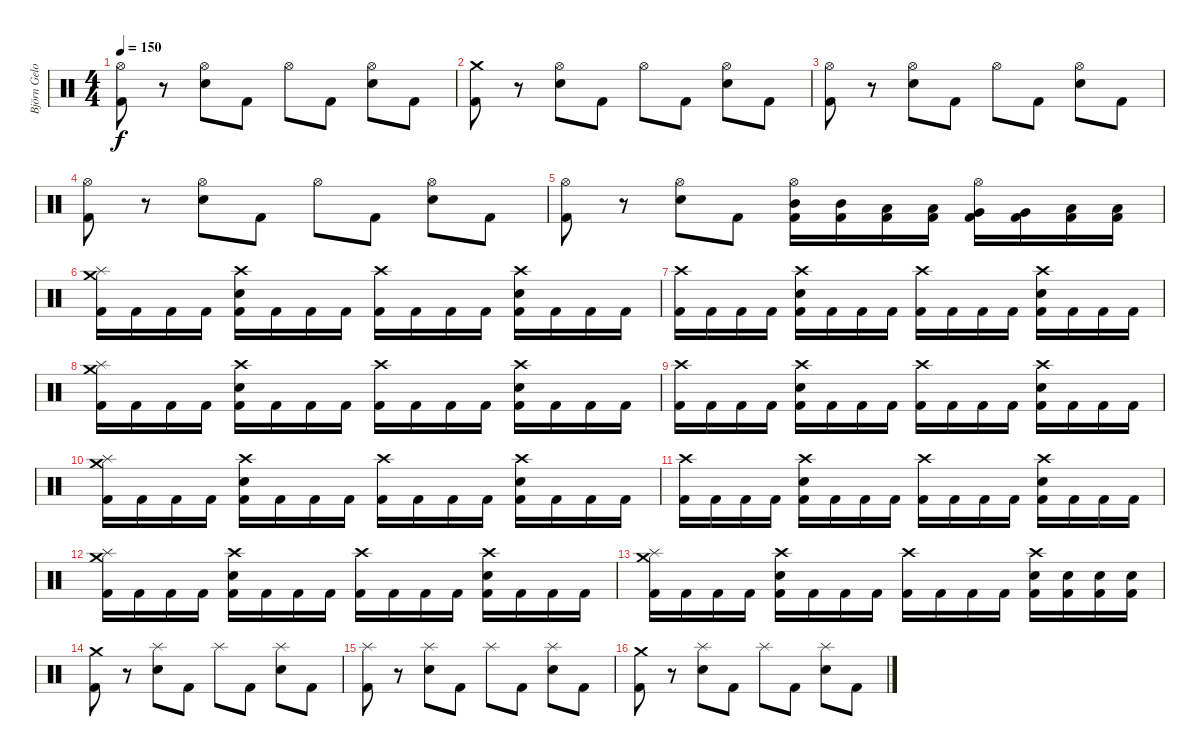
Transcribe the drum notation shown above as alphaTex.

\track ("Björn Gelotte" "Björn Gelo") {instrument percussion}
\staff {score}
\articulation defaults
\ts (4 4)
\tempo 150
\clef neutral
\ks c
("Hi-Hat (open)" "Kick (hit) 2").8{dy f} r.8 ("Hi-Hat (open)" "Electric Snare (hit)").8 "Kick (hit) 2".8 "Hi-Hat (open)".8 "Kick (hit) 2".8 ("Hi-Hat (open)" "Electric Snare (hit)").8 "Kick (hit) 2".8 |
("Crash medium (hit)" "Kick (hit) 2").8 r.8 ("Hi-Hat (open)" "Electric Snare (hit)").8 "Kick (hit) 2".8 "Hi-Hat (open)".8 "Kick (hit) 2".8 ("Hi-Hat (open)" "Electric Snare (hit)").8 "Kick (hit) 2".8 |
("Hi-Hat (open)" "Kick (hit) 2").8 r.8 ("Hi-Hat (open)" "Electric Snare (hit)").8 "Kick (hit) 2".8 "Hi-Hat (open)".8 "Kick (hit) 2".8 ("Hi-Hat (open)" "Electric Snare (hit)").8 "Kick (hit) 2".8 |
("Hi-Hat (open)" "Kick (hit) 2").8 r.8 ("Hi-Hat (open)" "Electric Snare (hit)").8 "Kick (hit) 2".8 "Hi-Hat (open)".8 "Kick (hit) 2".8 ("Hi-Hat (open)" "Electric Snare (hit)").8 "Kick (hit) 2".8 |
("Hi-Hat (open)" "Kick (hit) 2").8 r.8 ("Hi-Hat (open)" "Electric Snare (hit)").8 "Kick (hit) 2".8 ("Hi-Hat (open)" "Mid Tom (hit)" "Kick (hit) 2").16 ("Mid Tom (hit)" "Kick (hit) 2").16 ("Low Tom (hit)" "Kick (hit) 2").16 ("Low Tom (hit)" "Kick (hit) 2").16 ("Hi-Hat (open)" "Very Low Tom (hit)" "Kick (hit) 2").16 ("Very Low Tom (hit)" "Kick (hit) 2").16 ("Low Floor Tom (hit)" "Kick (hit) 2").16 ("Low Floor Tom (hit)" "Kick (hit) 2").16 |
("Crash medium (hit)" "Splash (hit)" "Kick (hit) 2").16 "Kick (hit) 2".16 "Kick (hit) 2".16 "Kick (hit) 2".16 ("Crash high (hit)" "Electric Snare (hit)" "Kick (hit) 2").16 "Kick (hit) 2".16 "Kick (hit) 2".16 "Kick (hit) 2".16 ("Crash high (hit)" "Kick (hit) 2").16 "Kick (hit) 2".16 "Kick (hit) 2".16 "Kick (hit) 2".16 ("Crash high (hit)" "Electric Snare (hit)" "Kick (hit) 2").16 "Kick (hit) 2".16 "Kick (hit) 2".16 "Kick (hit) 2".16 |
("Crash high (hit)" "Kick (hit) 2").16 "Kick (hit) 2".16 "Kick (hit) 2".16 "Kick (hit) 2".16 ("Crash high (hit)" "Electric Snare (hit)" "Kick (hit) 2").16 "Kick (hit) 2".16 "Kick (hit) 2".16 "Kick (hit) 2".16 ("Crash high (hit)" "Kick (hit) 2").16 "Kick (hit) 2".16 "Kick (hit) 2".16 "Kick (hit) 2".16 ("Crash high (hit)" "Electric Snare (hit)" "Kick (hit) 2").16 "Kick (hit) 2".16 "Kick (hit) 2".16 "Kick (hit) 2".16 |
("Crash medium (hit)" "Splash (hit)" "Kick (hit) 2").16 "Kick (hit) 2".16 "Kick (hit) 2".16 "Kick (hit) 2".16 ("Crash high (hit)" "Electric Snare (hit)" "Kick (hit) 2").16 "Kick (hit) 2".16 "Kick (hit) 2".16 "Kick (hit) 2".16 ("Crash high (hit)" "Kick (hit) 2").16 "Kick (hit) 2".16 "Kick (hit) 2".16 "Kick (hit) 2".16 ("Crash high (hit)" "Electric Snare (hit)" "Kick (hit) 2").16 "Kick (hit) 2".16 "Kick (hit) 2".16 "Kick (hit) 2".16 |
("Crash high (hit)" "Kick (hit) 2").16 "Kick (hit) 2".16 "Kick (hit) 2".16 "Kick (hit) 2".16 ("Crash high (hit)" "Electric Snare (hit)" "Kick (hit) 2").16 "Kick (hit) 2".16 "Kick (hit) 2".16 "Kick (hit) 2".16 ("Crash high (hit)" "Kick (hit) 2").16 "Kick (hit) 2".16 "Kick (hit) 2".16 "Kick (hit) 2".16 ("Crash high (hit)" "Electric Snare (hit)" "Kick (hit) 2").16 "Kick (hit) 2".16 "Kick (hit) 2".16 "Kick (hit) 2".16 |
("Crash medium (hit)" "Splash (hit)" "Kick (hit) 2").16 "Kick (hit) 2".16 "Kick (hit) 2".16 "Kick (hit) 2".16 ("Crash high (hit)" "Electric Snare (hit)" "Kick (hit) 2").16 "Kick (hit) 2".16 "Kick (hit) 2".16 "Kick (hit) 2".16 ("Crash high (hit)" "Kick (hit) 2").16 "Kick (hit) 2".16 "Kick (hit) 2".16 "Kick (hit) 2".16 ("Crash high (hit)" "Electric Snare (hit)" "Kick (hit) 2").16 "Kick (hit) 2".16 "Kick (hit) 2".16 "Kick (hit) 2".16 |
("Crash high (hit)" "Kick (hit) 2").16 "Kick (hit) 2".16 "Kick (hit) 2".16 "Kick (hit) 2".16 ("Crash high (hit)" "Electric Snare (hit)" "Kick (hit) 2").16 "Kick (hit) 2".16 "Kick (hit) 2".16 "Kick (hit) 2".16 ("Crash high (hit)" "Kick (hit) 2").16 "Kick (hit) 2".16 "Kick (hit) 2".16 "Kick (hit) 2".16 ("Crash high (hit)" "Electric Snare (hit)" "Kick (hit) 2").16 "Kick (hit) 2".16 "Kick (hit) 2".16 "Kick (hit) 2".16 |
("Crash medium (hit)" "Splash (hit)" "Kick (hit) 2").16 "Kick (hit) 2".16 "Kick (hit) 2".16 "Kick (hit) 2".16 ("Crash high (hit)" "Electric Snare (hit)" "Kick (hit) 2").16 "Kick (hit) 2".16 "Kick (hit) 2".16 "Kick (hit) 2".16 ("Crash high (hit)" "Kick (hit) 2").16 "Kick (hit) 2".16 "Kick (hit) 2".16 "Kick (hit) 2".16 ("Crash high (hit)" "Electric Snare (hit)" "Kick (hit) 2").16 "Kick (hit) 2".16 "Kick (hit) 2".16 "Kick (hit) 2".16 |
("Crash medium (hit)" "Splash (hit)" "Kick (hit) 2").16 "Kick (hit) 2".16 "Kick (hit) 2".16 "Kick (hit) 2".16 ("Crash high (hit)" "Electric Snare (hit)" "Kick (hit) 2").16 "Kick (hit) 2".16 "Kick (hit) 2".16 "Kick (hit) 2".16 ("Crash high (hit)" "Kick (hit) 2").16 "Kick (hit) 2".16 "Kick (hit) 2".16 "Kick (hit) 2".16 ("Crash high (hit)" "Electric Snare (hit)" "Kick (hit) 2").16 ("Electric Snare (hit)" "Kick (hit) 2").16 ("Electric Snare (hit)" "Kick (hit) 2").16 ("Electric Snare (hit)" "Kick (hit) 2").16 |
("Crash medium (hit)" "Kick (hit) 2").8 r.8 ("Splash (hit)" "Electric Snare (hit)").8 "Kick (hit) 2".8 "Splash (hit)".8 "Kick (hit) 2".8 ("Splash (hit)" "Electric Snare (hit)").8 "Kick (hit) 2".8 |
("Splash (hit)" "Kick (hit) 2").8 r.8 ("Splash (hit)" "Electric Snare (hit)").8 "Kick (hit) 2".8 "Splash (hit)".8 "Kick (hit) 2".8 ("Splash (hit)" "Electric Snare (hit)").8 "Kick (hit) 2".8 |
("Crash medium (hit)" "Kick (hit) 2").8 r.8 ("Splash (hit)" "Electric Snare (hit)").8 "Kick (hit) 2".8 "Splash (hit)".8 "Kick (hit) 2".8 ("Splash (hit)" "Electric Snare (hit)").8 "Kick (hit) 2".8
